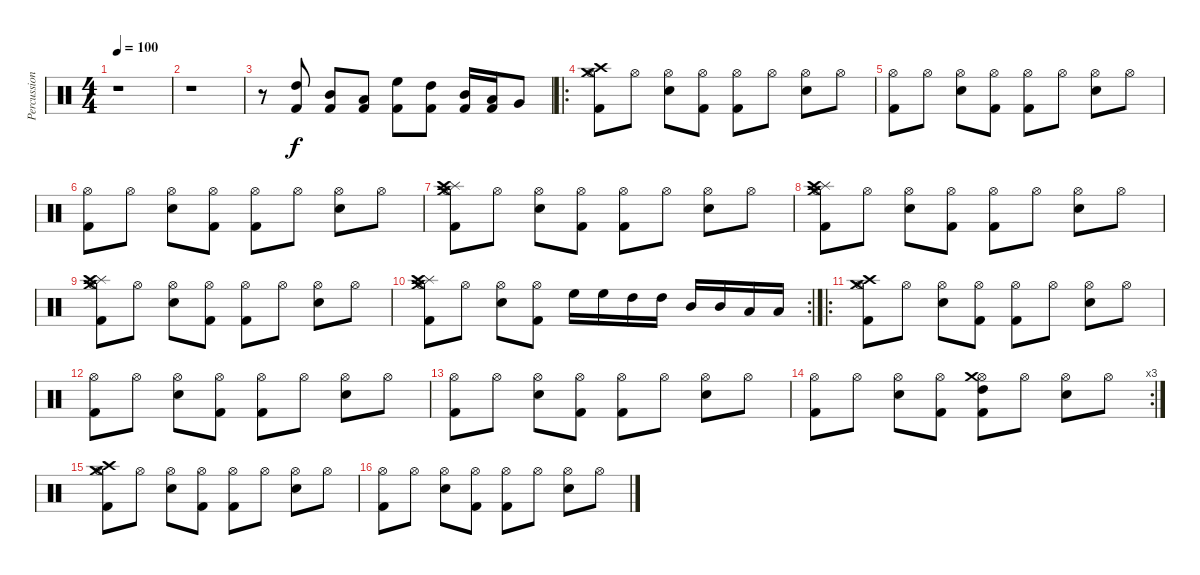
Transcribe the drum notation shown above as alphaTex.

\track ("Percussion" "Percussion") {instrument percussion}
\staff {score}
\articulation defaults
\ts (4 4)
\tempo 100
\clef neutral
\ks c
r.1{dy f} |
r.1 |
r.8 ("High Tom (hit)" "Kick (hit) 2").8 ("Mid Tom (hit)" "Kick (hit) 2").8 ("Low Tom (hit)" "Kick (hit) 2").8 ("High Floor Tom (hit)" "Kick (hit) 2").8 ("High Tom (hit)" "Kick (hit) 2").8 ("Mid Tom (hit)" "Kick (hit) 2").16 ("Low Tom (hit)" "Kick (hit) 2").16 "Very Low Tom (hit)".8 |
\ro
("Crash high (hit)" "Crash medium (hit)" "Kick (hit) 2" "Hi-Hat (open)").8 "Hi-Hat (open)".8 ("Hi-Hat (open)" "Electric Snare (hit)").8 ("Hi-Hat (open)" "Kick (hit) 2").8 ("Hi-Hat (open)" "Kick (hit) 2").8 "Hi-Hat (open)".8 ("Hi-Hat (open)" "Electric Snare (hit)").8 "Hi-Hat (open)".8 |
("Kick (hit) 2" "Hi-Hat (open)").8 "Hi-Hat (open)".8 ("Hi-Hat (open)" "Electric Snare (hit)").8 ("Hi-Hat (open)" "Kick (hit) 2").8 ("Hi-Hat (open)" "Kick (hit) 2").8 "Hi-Hat (open)".8 ("Hi-Hat (open)" "Electric Snare (hit)").8 "Hi-Hat (open)".8 |
("Kick (hit) 2" "Hi-Hat (open)").8 "Hi-Hat (open)".8 ("Hi-Hat (open)" "Electric Snare (hit)").8 ("Hi-Hat (open)" "Kick (hit) 2").8 ("Hi-Hat (open)" "Kick (hit) 2").8 "Hi-Hat (open)".8 ("Hi-Hat (open)" "Electric Snare (hit)").8 "Hi-Hat (open)".8 |
("Splash (hit)" "Crash high (hit)" "Crash medium (hit)" "Hi-Hat (open)" "Kick (hit) 2").8 "Hi-Hat (open)".8 ("Hi-Hat (open)" "Electric Snare (hit)").8 ("Hi-Hat (open)" "Kick (hit) 2").8 ("Hi-Hat (open)" "Kick (hit) 2").8 "Hi-Hat (open)".8 ("Hi-Hat (open)" "Electric Snare (hit)").8 "Hi-Hat (open)".8 |
("Splash (hit)" "Crash high (hit)" "Crash medium (hit)" "Hi-Hat (open)" "Kick (hit) 2").8 "Hi-Hat (open)".8 ("Hi-Hat (open)" "Electric Snare (hit)").8 ("Hi-Hat (open)" "Kick (hit) 2").8 ("Hi-Hat (open)" "Kick (hit) 2").8 "Hi-Hat (open)".8 ("Hi-Hat (open)" "Electric Snare (hit)").8 "Hi-Hat (open)".8 |
("Splash (hit)" "Crash high (hit)" "Crash medium (hit)" "Hi-Hat (open)" "Kick (hit) 2").8 "Hi-Hat (open)".8 ("Hi-Hat (open)" "Electric Snare (hit)").8 ("Hi-Hat (open)" "Kick (hit) 2").8 ("Hi-Hat (open)" "Kick (hit) 2").8 "Hi-Hat (open)".8 ("Hi-Hat (open)" "Electric Snare (hit)").8 "Hi-Hat (open)".8 |
\rc 2
("Splash (hit)" "Crash high (hit)" "Crash medium (hit)" "Hi-Hat (open)" "Kick (hit) 2").8 "Hi-Hat (open)".8 ("Hi-Hat (open)" "Electric Snare (hit)").8 ("Hi-Hat (open)" "Kick (hit) 2").8 "High Floor Tom (hit)".16 "High Floor Tom (hit)".16 "High Tom (hit)".16 "High Tom (hit)".16 "Mid Tom (hit)".16 "Mid Tom (hit)".16 "Low Tom (hit)".16 "Low Tom (hit)".16 |
\ro
("Crash high (hit)" "Crash medium (hit)" "Kick (hit) 2" "Hi-Hat (open)").8 "Hi-Hat (open)".8 ("Hi-Hat (open)" "Electric Snare (hit)").8 ("Hi-Hat (open)" "Kick (hit) 2").8 ("Hi-Hat (open)" "Kick (hit) 2").8 "Hi-Hat (open)".8 ("Hi-Hat (open)" "Electric Snare (hit)").8 "Hi-Hat (open)".8 |
("Kick (hit) 2" "Hi-Hat (open)").8 "Hi-Hat (open)".8 ("Hi-Hat (open)" "Electric Snare (hit)").8 ("Hi-Hat (open)" "Kick (hit) 2").8 ("Hi-Hat (open)" "Kick (hit) 2").8 "Hi-Hat (open)".8 ("Hi-Hat (open)" "Electric Snare (hit)").8 "Hi-Hat (open)".8 |
("Kick (hit) 2" "Hi-Hat (open)").8 "Hi-Hat (open)".8 ("Hi-Hat (open)" "Electric Snare (hit)").8 ("Hi-Hat (open)" "Kick (hit) 2").8 ("Hi-Hat (open)" "Kick (hit) 2").8 "Hi-Hat (open)".8 ("Hi-Hat (open)" "Electric Snare (hit)").8 "Hi-Hat (open)".8 |
\rc 3
("Kick (hit) 2" "Hi-Hat (open)").8 "Hi-Hat (open)".8 ("Hi-Hat (open)" "Electric Snare (hit)").8 ("Hi-Hat (open)" "Kick (hit) 2").8 ("Hi-Hat (open)" "Kick (hit) 2" "Crash medium (hit)" "High Tom (hit)").8 "Hi-Hat (open)".8 ("Hi-Hat (open)" "Electric Snare (hit)").8 "Hi-Hat (open)".8 |
("Crash high (hit)" "Crash medium (hit)" "Kick (hit) 2" "Hi-Hat (open)").8 "Hi-Hat (open)".8 ("Hi-Hat (open)" "Electric Snare (hit)").8 ("Hi-Hat (open)" "Kick (hit) 2").8 ("Hi-Hat (open)" "Kick (hit) 2").8 "Hi-Hat (open)".8 ("Hi-Hat (open)" "Electric Snare (hit)").8 "Hi-Hat (open)".8 |
("Kick (hit) 2" "Hi-Hat (open)").8 "Hi-Hat (open)".8 ("Hi-Hat (open)" "Electric Snare (hit)").8 ("Hi-Hat (open)" "Kick (hit) 2").8 ("Hi-Hat (open)" "Kick (hit) 2").8 "Hi-Hat (open)".8 ("Hi-Hat (open)" "Electric Snare (hit)").8 "Hi-Hat (open)".8
